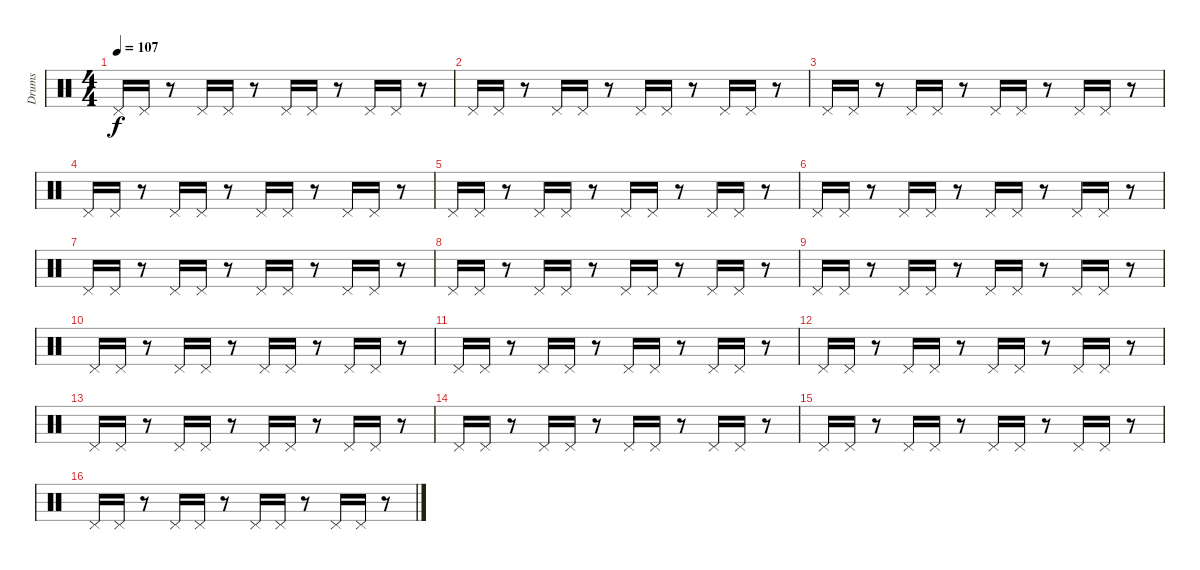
\track ("Drums" "Drums") {instrument percussion}
\staff {score}
\articulation defaults
\ts (4 4)
\tempo 107
\clef neutral
\ks c "Pedal Hi-Hat (hit)".16{dy f} "Pedal Hi-Hat (hit)".16
r.8 "Pedal Hi-Hat (hit)".16 "Pedal Hi-Hat (hit)".16 r.8 "Pedal Hi-Hat (hit)".16 "Pedal Hi-Hat (hit)".16 r.8 "Pedal Hi-Hat (hit)".16 "Pedal Hi-Hat (hit)".16 r.8 |
"Pedal Hi-Hat (hit)".16 "Pedal Hi-Hat (hit)".16 r.8 "Pedal Hi-Hat (hit)".16 "Pedal Hi-Hat (hit)".16 r.8 "Pedal Hi-Hat (hit)".16 "Pedal Hi-Hat (hit)".16 r.8 "Pedal Hi-Hat (hit)".16 "Pedal Hi-Hat (hit)".16 r.8 |
"Pedal Hi-Hat (hit)".16 "Pedal Hi-Hat (hit)".16 r.8 "Pedal Hi-Hat (hit)".16 "Pedal Hi-Hat (hit)".16 r.8 "Pedal Hi-Hat (hit)".16 "Pedal Hi-Hat (hit)".16 r.8 "Pedal Hi-Hat (hit)".16 "Pedal Hi-Hat (hit)".16 r.8 |
"Pedal Hi-Hat (hit)".16 "Pedal Hi-Hat (hit)".16 r.8 "Pedal Hi-Hat (hit)".16 "Pedal Hi-Hat (hit)".16 r.8 "Pedal Hi-Hat (hit)".16 "Pedal Hi-Hat (hit)".16 r.8 "Pedal Hi-Hat (hit)".16 "Pedal Hi-Hat (hit)".16 r.8 |
"Pedal Hi-Hat (hit)".16 "Pedal Hi-Hat (hit)".16 r.8 "Pedal Hi-Hat (hit)".16 "Pedal Hi-Hat (hit)".16 r.8 "Pedal Hi-Hat (hit)".16 "Pedal Hi-Hat (hit)".16 r.8 "Pedal Hi-Hat (hit)".16 "Pedal Hi-Hat (hit)".16 r.8 |
"Pedal Hi-Hat (hit)".16 "Pedal Hi-Hat (hit)".16 r.8 "Pedal Hi-Hat (hit)".16 "Pedal Hi-Hat (hit)".16 r.8 "Pedal Hi-Hat (hit)".16 "Pedal Hi-Hat (hit)".16 r.8 "Pedal Hi-Hat (hit)".16 "Pedal Hi-Hat (hit)".16 r.8 |
"Pedal Hi-Hat (hit)".16 "Pedal Hi-Hat (hit)".16 r.8 "Pedal Hi-Hat (hit)".16 "Pedal Hi-Hat (hit)".16 r.8 "Pedal Hi-Hat (hit)".16 "Pedal Hi-Hat (hit)".16 r.8 "Pedal Hi-Hat (hit)".16 "Pedal Hi-Hat (hit)".16 r.8 |
"Pedal Hi-Hat (hit)".16 "Pedal Hi-Hat (hit)".16 r.8 "Pedal Hi-Hat (hit)".16 "Pedal Hi-Hat (hit)".16 r.8 "Pedal Hi-Hat (hit)".16 "Pedal Hi-Hat (hit)".16 r.8 "Pedal Hi-Hat (hit)".16 "Pedal Hi-Hat (hit)".16 r.8 |
"Pedal Hi-Hat (hit)".16 "Pedal Hi-Hat (hit)".16 r.8 "Pedal Hi-Hat (hit)".16 "Pedal Hi-Hat (hit)".16 r.8 "Pedal Hi-Hat (hit)".16 "Pedal Hi-Hat (hit)".16 r.8 "Pedal Hi-Hat (hit)".16 "Pedal Hi-Hat (hit)".16 r.8 |
"Pedal Hi-Hat (hit)".16 "Pedal Hi-Hat (hit)".16 r.8 "Pedal Hi-Hat (hit)".16 "Pedal Hi-Hat (hit)".16 r.8 "Pedal Hi-Hat (hit)".16 "Pedal Hi-Hat (hit)".16 r.8 "Pedal Hi-Hat (hit)".16 "Pedal Hi-Hat (hit)".16 r.8 |
"Pedal Hi-Hat (hit)".16 "Pedal Hi-Hat (hit)".16 r.8 "Pedal Hi-Hat (hit)".16 "Pedal Hi-Hat (hit)".16 r.8 "Pedal Hi-Hat (hit)".16 "Pedal Hi-Hat (hit)".16 r.8 "Pedal Hi-Hat (hit)".16 "Pedal Hi-Hat (hit)".16 r.8 |
"Pedal Hi-Hat (hit)".16 "Pedal Hi-Hat (hit)".16 r.8 "Pedal Hi-Hat (hit)".16 "Pedal Hi-Hat (hit)".16 r.8 "Pedal Hi-Hat (hit)".16 "Pedal Hi-Hat (hit)".16 r.8 "Pedal Hi-Hat (hit)".16 "Pedal Hi-Hat (hit)".16 r.8 |
"Pedal Hi-Hat (hit)".16 "Pedal Hi-Hat (hit)".16 r.8 "Pedal Hi-Hat (hit)".16 "Pedal Hi-Hat (hit)".16 r.8 "Pedal Hi-Hat (hit)".16 "Pedal Hi-Hat (hit)".16 r.8 "Pedal Hi-Hat (hit)".16 "Pedal Hi-Hat (hit)".16 r.8 |
"Pedal Hi-Hat (hit)".16 "Pedal Hi-Hat (hit)".16 r.8 "Pedal Hi-Hat (hit)".16 "Pedal Hi-Hat (hit)".16 r.8 "Pedal Hi-Hat (hit)".16 "Pedal Hi-Hat (hit)".16 r.8 "Pedal Hi-Hat (hit)".16 "Pedal Hi-Hat (hit)".16 r.8 |
"Pedal Hi-Hat (hit)".16 "Pedal Hi-Hat (hit)".16 r.8 "Pedal Hi-Hat (hit)".16 "Pedal Hi-Hat (hit)".16 r.8 "Pedal Hi-Hat (hit)".16 "Pedal Hi-Hat (hit)".16 r.8 "Pedal Hi-Hat (hit)".16 "Pedal Hi-Hat (hit)".16 r.8 |
"Pedal Hi-Hat (hit)".16 "Pedal Hi-Hat (hit)".16 r.8 "Pedal Hi-Hat (hit)".16 "Pedal Hi-Hat (hit)".16 r.8 "Pedal Hi-Hat (hit)".16 "Pedal Hi-Hat (hit)".16 r.8 "Pedal Hi-Hat (hit)".16 "Pedal Hi-Hat (hit)".16 r.8
